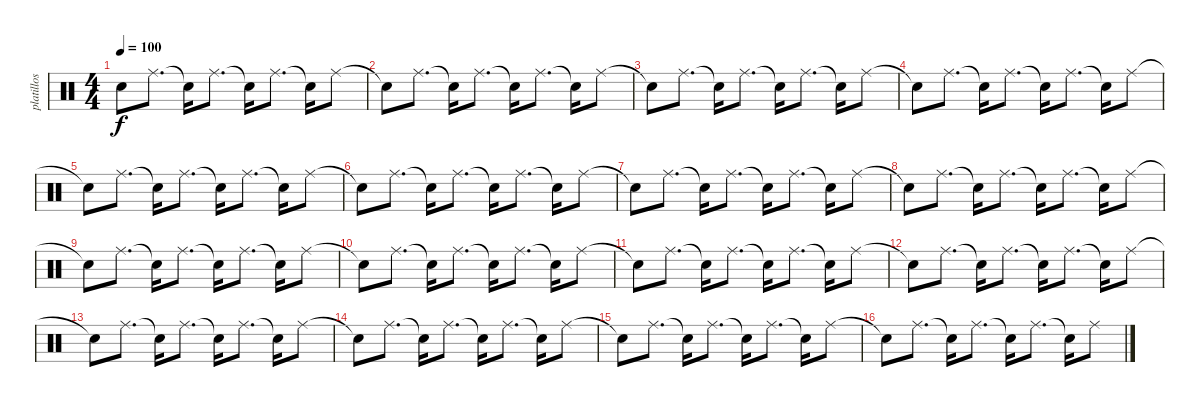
\track ("platillos" "platillos") {instrument percussion}
\staff {score}
\articulation defaults
\ts (4 4)
\tempo 100
\clef neutral
\ks c "Snare (hit)"{t}.8{dy f} "Ride (middle)".8{d} "Snare (hit)"{t}.16 "Ride (middle)".8{d} "Snare (hit)"{t}.16 "Ride (middle)".8{d} "Snare (hit)"{t}.16 "Ride (middle)".8
|
"Snare (hit)"{t}.8 "Ride (middle)".8{d} "Snare (hit)"{t}.16 "Ride (middle)".8{d} "Snare (hit)"{t}.16 "Ride (middle)".8{d} "Snare (hit)"{t}.16 "Ride (middle)".8 |
"Snare (hit)"{t}.8 "Ride (middle)".8{d} "Snare (hit)"{t}.16 "Ride (middle)".8{d} "Snare (hit)"{t}.16 "Ride (middle)".8{d} "Snare (hit)"{t}.16 "Ride (middle)".8 |
"Snare (hit)"{t}.8 "Ride (middle)".8{d} "Snare (hit)"{t}.16 "Ride (middle)".8{d} "Snare (hit)"{t}.16 "Ride (middle)".8{d} "Snare (hit)"{t}.16 "Ride (middle)".8 |
"Snare (hit)"{t}.8 "Ride (middle)".8{d} "Snare (hit)"{t}.16 "Ride (middle)".8{d} "Snare (hit)"{t}.16 "Ride (middle)".8{d} "Snare (hit)"{t}.16 "Ride (middle)".8 |
"Snare (hit)"{t}.8 "Ride (middle)".8{d} "Snare (hit)"{t}.16 "Ride (middle)".8{d} "Snare (hit)"{t}.16 "Ride (middle)".8{d} "Snare (hit)"{t}.16 "Ride (middle)".8 |
"Snare (hit)"{t}.8 "Ride (middle)".8{d} "Snare (hit)"{t}.16 "Ride (middle)".8{d} "Snare (hit)"{t}.16 "Ride (middle)".8{d} "Snare (hit)"{t}.16 "Ride (middle)".8 |
"Snare (hit)"{t}.8 "Ride (middle)".8{d} "Snare (hit)"{t}.16 "Ride (middle)".8{d} "Snare (hit)"{t}.16 "Ride (middle)".8{d} "Snare (hit)"{t}.16 "Ride (middle)".8 |
"Snare (hit)"{t}.8 "Ride (middle)".8{d} "Snare (hit)"{t}.16 "Ride (middle)".8{d} "Snare (hit)"{t}.16 "Ride (middle)".8{d} "Snare (hit)"{t}.16 "Ride (middle)".8 |
"Snare (hit)"{t}.8 "Ride (middle)".8{d} "Snare (hit)"{t}.16 "Ride (middle)".8{d} "Snare (hit)"{t}.16 "Ride (middle)".8{d} "Snare (hit)"{t}.16 "Ride (middle)".8 |
"Snare (hit)"{t}.8 "Ride (middle)".8{d} "Snare (hit)"{t}.16 "Ride (middle)".8{d} "Snare (hit)"{t}.16 "Ride (middle)".8{d} "Snare (hit)"{t}.16 "Ride (middle)".8 |
"Snare (hit)"{t}.8 "Ride (middle)".8{d} "Snare (hit)"{t}.16 "Ride (middle)".8{d} "Snare (hit)"{t}.16 "Ride (middle)".8{d} "Snare (hit)"{t}.16 "Ride (middle)".8 |
"Snare (hit)"{t}.8 "Ride (middle)".8{d} "Snare (hit)"{t}.16 "Ride (middle)".8{d} "Snare (hit)"{t}.16 "Ride (middle)".8{d} "Snare (hit)"{t}.16 "Ride (middle)".8 |
"Snare (hit)"{t}.8 "Ride (middle)".8{d} "Snare (hit)"{t}.16 "Ride (middle)".8{d} "Snare (hit)"{t}.16 "Ride (middle)".8{d} "Snare (hit)"{t}.16 "Ride (middle)".8 |
"Snare (hit)"{t}.8 "Ride (middle)".8{d} "Snare (hit)"{t}.16 "Ride (middle)".8{d} "Snare (hit)"{t}.16 "Ride (middle)".8{d} "Snare (hit)"{t}.16 "Ride (middle)".8 |
"Snare (hit)"{t}.8 "Ride (middle)".8{d} "Snare (hit)"{t}.16 "Ride (middle)".8{d} "Snare (hit)"{t}.16 "Ride (middle)".8{d} "Snare (hit)"{t}.16 "Ride (middle)".8
